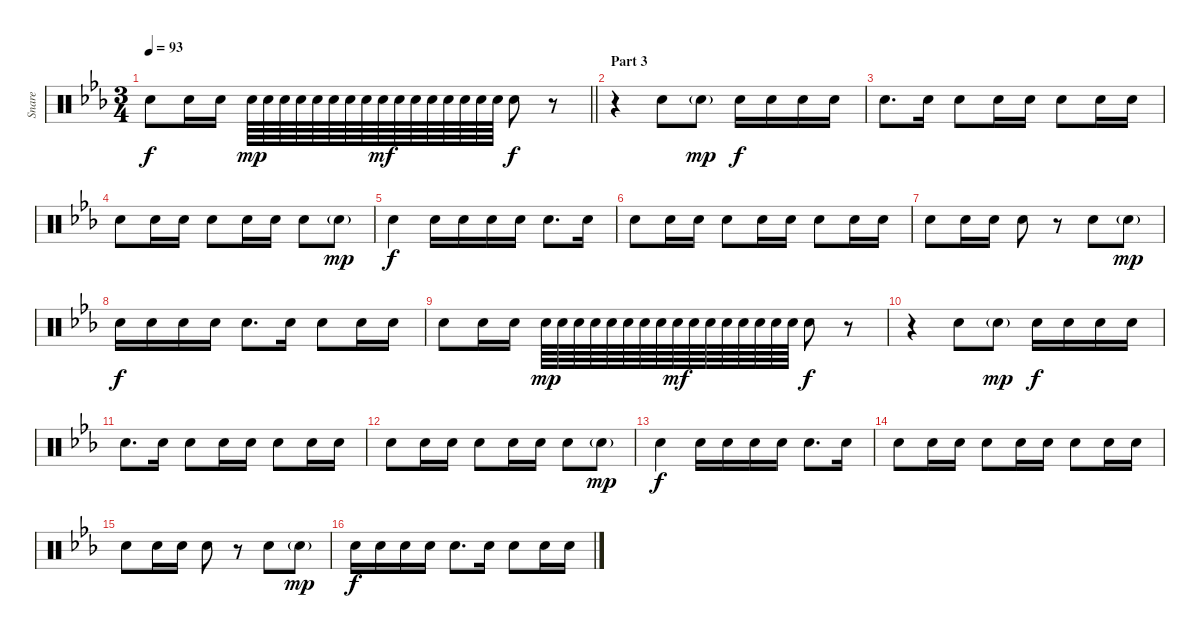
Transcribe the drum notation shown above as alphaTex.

\track ("Snare" "Snare") {instrument percussion}
\staff {score}
\articulation defaults
\ts (3 4)
\tempo 93
\clef neutral
\barLineRight lightlight
\ks cminor "Electric Snare (hit)".8{dy f} "Electric Snare (hit)".16 "Electric Snare (hit)".16 "Electric Snare (hit)".64{dy mp} "Electric Snare (hit)".64 "Electric Snare (hit)".64 "Electric Snare (hit)".64 "Electric Snare (hit)".64 "Electric Snare (hit)".64 "Electric Snare (hit)".64 "Electric Snare (hit)".64 "Electric Snare (hit)".64{dy mf} "Electric Snare (hit)".64 "Electric Snare (hit)".64 "Electric Snare (hit)".64 "Electric Snare (hit)".64 "Electric Snare (hit)".64 "Electric Snare (hit)".64 "Electric Snare (hit)".64 "Electric Snare (hit)".8{dy f}
r.8 |
\section ("" "Part 3")
r.4 "Electric Snare (hit)".8 "Electric Snare (hit)"{g}.8{dy mp} "Electric Snare (hit)".16{dy f} "Electric Snare (hit)".16 "Electric Snare (hit)".16 "Electric Snare (hit)".16 |
"Electric Snare (hit)".8{d} "Electric Snare (hit)".16 "Electric Snare (hit)".8 "Electric Snare (hit)".16 "Electric Snare (hit)".16 "Electric Snare (hit)".8 "Electric Snare (hit)".16 "Electric Snare (hit)".16 |
"Electric Snare (hit)".8 "Electric Snare (hit)".16 "Electric Snare (hit)".16 "Electric Snare (hit)".8 "Electric Snare (hit)".16 "Electric Snare (hit)".16 "Electric Snare (hit)".8 "Electric Snare (hit)"{g}.8{dy mp} |
"Electric Snare (hit)".4{dy f} "Electric Snare (hit)".16 "Electric Snare (hit)".16 "Electric Snare (hit)".16 "Electric Snare (hit)".16 "Electric Snare (hit)".8{d} "Electric Snare (hit)".16 |
"Electric Snare (hit)".8 "Electric Snare (hit)".16 "Electric Snare (hit)".16 "Electric Snare (hit)".8 "Electric Snare (hit)".16 "Electric Snare (hit)".16 "Electric Snare (hit)".8 "Electric Snare (hit)".16 "Electric Snare (hit)".16 |
"Electric Snare (hit)".8 "Electric Snare (hit)".16 "Electric Snare (hit)".16 "Electric Snare (hit)".8 r.8 "Electric Snare (hit)".8 "Electric Snare (hit)"{g}.8{dy mp} |
"Electric Snare (hit)".16{dy f} "Electric Snare (hit)".16 "Electric Snare (hit)".16 "Electric Snare (hit)".16 "Electric Snare (hit)".8{d} "Electric Snare (hit)".16 "Electric Snare (hit)".8 "Electric Snare (hit)".16 "Electric Snare (hit)".16 |
"Electric Snare (hit)".8 "Electric Snare (hit)".16 "Electric Snare (hit)".16 "Electric Snare (hit)".64{dy mp} "Electric Snare (hit)".64 "Electric Snare (hit)".64 "Electric Snare (hit)".64 "Electric Snare (hit)".64 "Electric Snare (hit)".64 "Electric Snare (hit)".64 "Electric Snare (hit)".64 "Electric Snare (hit)".64{dy mf} "Electric Snare (hit)".64 "Electric Snare (hit)".64 "Electric Snare (hit)".64 "Electric Snare (hit)".64 "Electric Snare (hit)".64 "Electric Snare (hit)".64 "Electric Snare (hit)".64 "Electric Snare (hit)".8{dy f} r.8 |
r.4 "Electric Snare (hit)".8 "Electric Snare (hit)"{g}.8{dy mp} "Electric Snare (hit)".16{dy f} "Electric Snare (hit)".16 "Electric Snare (hit)".16 "Electric Snare (hit)".16 |
"Electric Snare (hit)".8{d} "Electric Snare (hit)".16 "Electric Snare (hit)".8 "Electric Snare (hit)".16 "Electric Snare (hit)".16 "Electric Snare (hit)".8 "Electric Snare (hit)".16 "Electric Snare (hit)".16 |
"Electric Snare (hit)".8 "Electric Snare (hit)".16 "Electric Snare (hit)".16 "Electric Snare (hit)".8 "Electric Snare (hit)".16 "Electric Snare (hit)".16 "Electric Snare (hit)".8 "Electric Snare (hit)"{g}.8{dy mp} |
"Electric Snare (hit)".4{dy f} "Electric Snare (hit)".16 "Electric Snare (hit)".16 "Electric Snare (hit)".16 "Electric Snare (hit)".16 "Electric Snare (hit)".8{d} "Electric Snare (hit)".16 |
"Electric Snare (hit)".8 "Electric Snare (hit)".16 "Electric Snare (hit)".16 "Electric Snare (hit)".8 "Electric Snare (hit)".16 "Electric Snare (hit)".16 "Electric Snare (hit)".8 "Electric Snare (hit)".16 "Electric Snare (hit)".16 |
"Electric Snare (hit)".8 "Electric Snare (hit)".16 "Electric Snare (hit)".16 "Electric Snare (hit)".8 r.8 "Electric Snare (hit)".8 "Electric Snare (hit)"{g}.8{dy mp} |
"Electric Snare (hit)".16{dy f} "Electric Snare (hit)".16 "Electric Snare (hit)".16 "Electric Snare (hit)".16 "Electric Snare (hit)".8{d} "Electric Snare (hit)".16 "Electric Snare (hit)".8 "Electric Snare (hit)".16 "Electric Snare (hit)".16
